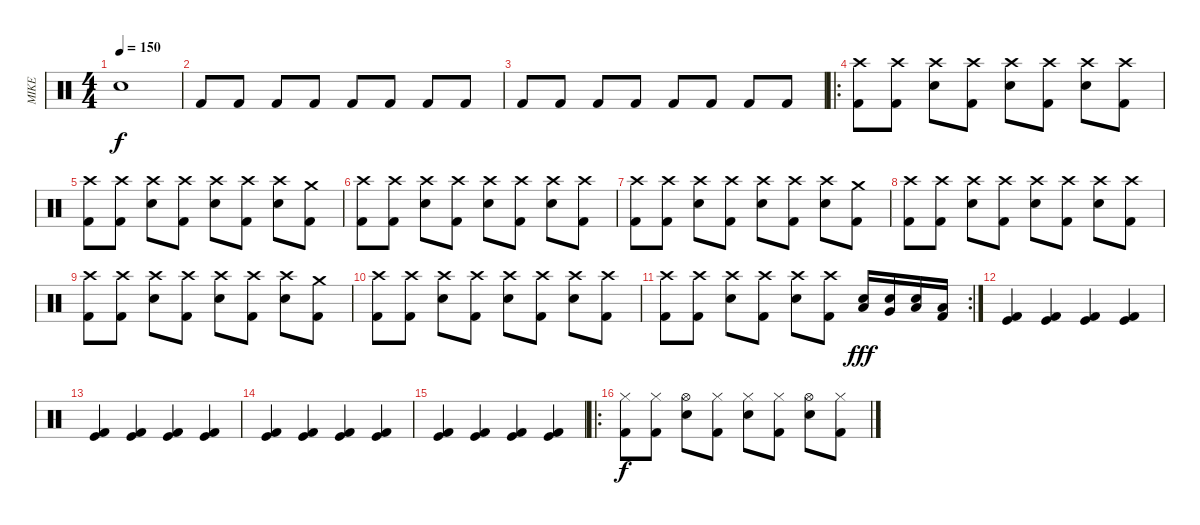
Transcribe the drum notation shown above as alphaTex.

\track ("MIKE" "MIKE") {instrument percussion}
\staff {score}
\articulation defaults
\ts (4 4)
\tempo 150
\clef neutral
\ks c "Snare (hit) 2".1{dy f}
|
"Kick (hit) 2".8 "Kick (hit) 2".8 "Kick (hit) 2".8 "Kick (hit) 2".8 "Kick (hit) 2".8 "Kick (hit) 2".8 "Kick (hit) 2".8 "Kick (hit) 2".8 |
"Kick (hit) 2".8 "Kick (hit) 2".8 "Kick (hit) 2".8 "Kick (hit) 2".8 "Kick (hit) 2".8 "Kick (hit) 2".8 "Kick (hit) 2".8 "Kick (hit) 2".8 |
\ro
("Crash high (hit)" "Kick (hit) 2").8 ("Crash high (hit)" "Kick (hit) 2").8 ("Crash high (hit)" "Snare (hit) 2").8 ("Crash high (hit)" "Kick (hit) 2").8 ("Crash high (hit)" "Snare (hit) 2").8 ("Crash high (hit)" "Kick (hit) 2").8 ("Crash high (hit)" "Snare (hit) 2").8 ("Crash high (hit)" "Kick (hit) 2").8 |
("Crash high (hit)" "Kick (hit) 2").8 ("Crash high (hit)" "Kick (hit) 2").8 ("Crash high (hit)" "Snare (hit) 2").8 ("Crash high (hit)" "Kick (hit) 2").8 ("Crash high (hit)" "Snare (hit) 2").8 ("Crash high (hit)" "Kick (hit) 2").8 ("Crash high (hit)" "Snare (hit) 2").8 ("Crash medium (hit)" "Kick (hit) 2").8 |
("Crash high (hit)" "Kick (hit) 2").8 ("Crash high (hit)" "Kick (hit) 2").8 ("Crash high (hit)" "Snare (hit) 2").8 ("Crash high (hit)" "Kick (hit) 2").8 ("Crash high (hit)" "Snare (hit) 2").8 ("Crash high (hit)" "Kick (hit) 2").8 ("Crash high (hit)" "Snare (hit) 2").8 ("Crash high (hit)" "Kick (hit) 2").8 |
("Crash high (hit)" "Kick (hit) 2").8 ("Crash high (hit)" "Kick (hit) 2").8 ("Crash high (hit)" "Snare (hit) 2").8 ("Crash high (hit)" "Kick (hit) 2").8 ("Crash high (hit)" "Snare (hit) 2").8 ("Crash high (hit)" "Kick (hit) 2").8 ("Crash high (hit)" "Snare (hit) 2").8 ("Crash medium (hit)" "Kick (hit) 2").8 |
("Crash high (hit)" "Kick (hit) 2").8 ("Crash high (hit)" "Kick (hit) 2").8 ("Crash high (hit)" "Snare (hit) 2").8 ("Crash high (hit)" "Kick (hit) 2").8 ("Crash high (hit)" "Snare (hit) 2").8 ("Crash high (hit)" "Kick (hit) 2").8 ("Crash high (hit)" "Snare (hit) 2").8 ("Crash high (hit)" "Kick (hit) 2").8 |
("Crash high (hit)" "Kick (hit) 2").8 ("Crash high (hit)" "Kick (hit) 2").8 ("Crash high (hit)" "Snare (hit) 2").8 ("Crash high (hit)" "Kick (hit) 2").8 ("Crash high (hit)" "Snare (hit) 2").8 ("Crash high (hit)" "Kick (hit) 2").8 ("Crash high (hit)" "Snare (hit) 2").8 ("Crash medium (hit)" "Kick (hit) 2").8 |
("Crash high (hit)" "Kick (hit) 2").8 ("Crash high (hit)" "Kick (hit) 2").8 ("Crash high (hit)" "Snare (hit) 2").8 ("Crash high (hit)" "Kick (hit) 2").8 ("Crash high (hit)" "Snare (hit) 2").8 ("Crash high (hit)" "Kick (hit) 2").8 ("Crash high (hit)" "Snare (hit) 2").8 ("Crash high (hit)" "Kick (hit) 2").8 |
\rc 2
("Crash high (hit)" "Kick (hit) 2").8 ("Crash high (hit)" "Kick (hit) 2").8 ("Crash high (hit)" "Snare (hit) 2").8 ("Crash high (hit)" "Kick (hit) 2").8 ("Crash high (hit)" "Snare (hit) 2").8 ("Crash high (hit)" "Kick (hit) 2").8 ("Low Tom (hit)" "Snare (hit) 2").16{dy fff} ("Very Low Tom (hit)" "Snare (hit) 2").16 ("Low Floor Tom (hit)" "Snare (hit) 2").16 ("Low Floor Tom (hit)" "Kick (hit) 2").16 |
("Kick (hit)" "Kick (hit) 2").4 ("Kick (hit)" "Kick (hit) 2").4 ("Kick (hit)" "Kick (hit) 2").4 ("Kick (hit)" "Kick (hit) 2").4 |
("Kick (hit)" "Kick (hit) 2").4 ("Kick (hit)" "Kick (hit) 2").4 ("Kick (hit)" "Kick (hit) 2").4 ("Kick (hit)" "Kick (hit) 2").4 |
("Kick (hit)" "Kick (hit) 2").4 ("Kick (hit)" "Kick (hit) 2").4 ("Kick (hit)" "Kick (hit) 2").4 ("Kick (hit)" "Kick (hit) 2").4 |
("Kick (hit)" "Kick (hit) 2").4 ("Kick (hit)" "Kick (hit) 2").4 ("Kick (hit)" "Kick (hit) 2").4 ("Kick (hit)" "Kick (hit) 2").4 |
\ro
("Hi-Hat (closed)" "Kick (hit) 2").8{dy f} ("Hi-Hat (closed)" "Kick (hit) 2").8 ("Hi-Hat (open)" "Snare (hit) 2").8 ("Hi-Hat (closed)" "Kick (hit) 2").8 ("Hi-Hat (closed)" "Snare (hit) 2").8 ("Hi-Hat (closed)" "Kick (hit) 2").8 ("Hi-Hat (open)" "Snare (hit) 2").8 ("Hi-Hat (closed)" "Kick (hit) 2").8
